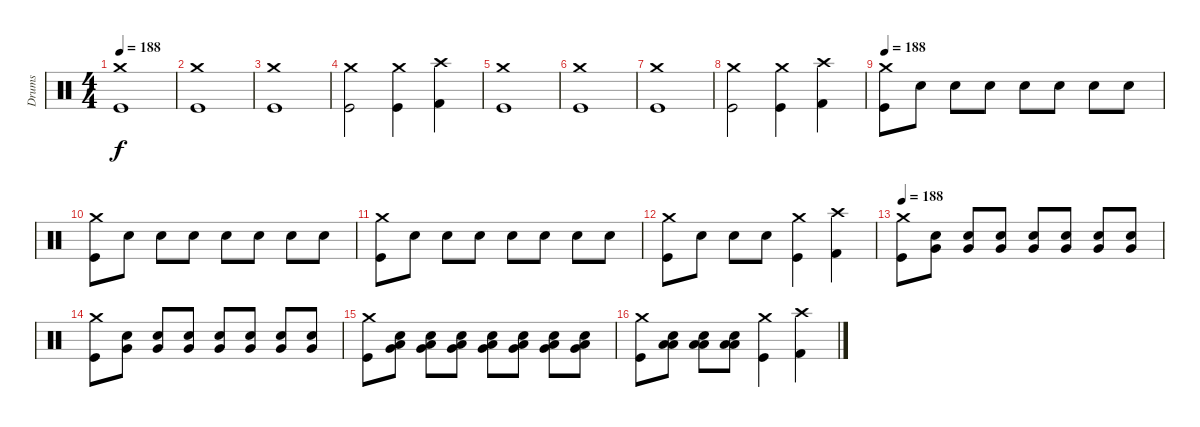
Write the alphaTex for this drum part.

\track ("Drums" "Drums") {instrument percussion}
\staff {score}
\articulation defaults
\ts (4 4)
\tempo 188
\clef neutral
\ks c
("Crash medium (hit)" "Kick (hit)").1{dy f} |
("Crash medium (hit)" "Kick (hit)").1 |
("Crash medium (hit)" "Kick (hit)").1 |
("Crash medium (hit)" "Kick (hit)").2 ("Crash medium (hit)" "Kick (hit)").4 ("Crash high (hit)" "Kick (hit) 2").4 |
("Crash medium (hit)" "Kick (hit)").1 |
("Crash medium (hit)" "Kick (hit)").1 |
("Crash medium (hit)" "Kick (hit)").1 |
("Crash medium (hit)" "Kick (hit)").2 ("Crash medium (hit)" "Kick (hit)").4 ("Crash high (hit)" "Kick (hit) 2").4 |
\tempo 188
("Crash medium (hit)" "Kick (hit)").8 "Electric Snare (hit)".8{volume 5} "Electric Snare (hit)".8{volume 14} "Electric Snare (hit)".8 "Electric Snare (hit)".8 "Electric Snare (hit)".8 "Electric Snare (hit)".8 "Electric Snare (hit)".8 |
("Crash medium (hit)" "Kick (hit)").8 "Electric Snare (hit)".8{volume 8} "Electric Snare (hit)".8{volume 14} "Electric Snare (hit)".8 "Electric Snare (hit)".8 "Electric Snare (hit)".8 "Electric Snare (hit)".8 "Electric Snare (hit)".8 |
("Crash medium (hit)" "Kick (hit)").8 "Electric Snare (hit)".8{volume 10} "Electric Snare (hit)".8{volume 14} "Electric Snare (hit)".8 "Electric Snare (hit)".8 "Electric Snare (hit)".8 "Electric Snare (hit)".8 "Electric Snare (hit)".8 |
("Crash medium (hit)" "Kick (hit)").8 "Electric Snare (hit)".8 "Electric Snare (hit)".8 "Electric Snare (hit)".8 ("Crash medium (hit)" "Kick (hit)").4 ("Crash high (hit)" "Kick (hit) 2").4 |
\tempo 188
("Crash medium (hit)" "Kick (hit)").8 ("Electric Snare (hit)" "Very Low Tom (hit)").8{volume 10} ("Electric Snare (hit)" "Very Low Tom (hit)").8{volume 15} ("Electric Snare (hit)" "Very Low Tom (hit)").8 ("Electric Snare (hit)" "Very Low Tom (hit)").8 ("Electric Snare (hit)" "Very Low Tom (hit)").8 ("Electric Snare (hit)" "Very Low Tom (hit)").8 ("Electric Snare (hit)" "Very Low Tom (hit)").8 |
("Crash medium (hit)" "Kick (hit)").8 ("Electric Snare (hit)" "Very Low Tom (hit)").8{volume 9} ("Electric Snare (hit)" "Very Low Tom (hit)").8{volume 14} ("Electric Snare (hit)" "Very Low Tom (hit)").8 ("Electric Snare (hit)" "Very Low Tom (hit)").8 ("Electric Snare (hit)" "Very Low Tom (hit)").8 ("Electric Snare (hit)" "Very Low Tom (hit)").8 ("Electric Snare (hit)" "Very Low Tom (hit)").8 |
("Crash medium (hit)" "Kick (hit)").8 ("Electric Snare (hit)" "Very Low Tom (hit)" "Low Floor Tom (hit)").8{volume 12} ("Electric Snare (hit)" "Very Low Tom (hit)" "Low Floor Tom (hit)").8{volume 16} ("Electric Snare (hit)" "Very Low Tom (hit)" "Low Floor Tom (hit)").8 ("Electric Snare (hit)" "Very Low Tom (hit)" "Low Floor Tom (hit)").8 ("Electric Snare (hit)" "Very Low Tom (hit)" "Low Floor Tom (hit)").8 ("Electric Snare (hit)" "Very Low Tom (hit)" "Low Floor Tom (hit)").8 ("Electric Snare (hit)" "Very Low Tom (hit)" "Low Floor Tom (hit)").8 |
("Crash medium (hit)" "Kick (hit)").8 ("Electric Snare (hit)" "Low Tom (hit)" "Low Floor Tom (hit)").8 ("Electric Snare (hit)" "Low Tom (hit)" "Low Floor Tom (hit)").8 ("Electric Snare (hit)" "Low Tom (hit)" "Low Floor Tom (hit)").8 ("Crash medium (hit)" "Kick (hit)").4 ("Crash high (hit)" "Kick (hit) 2").4
